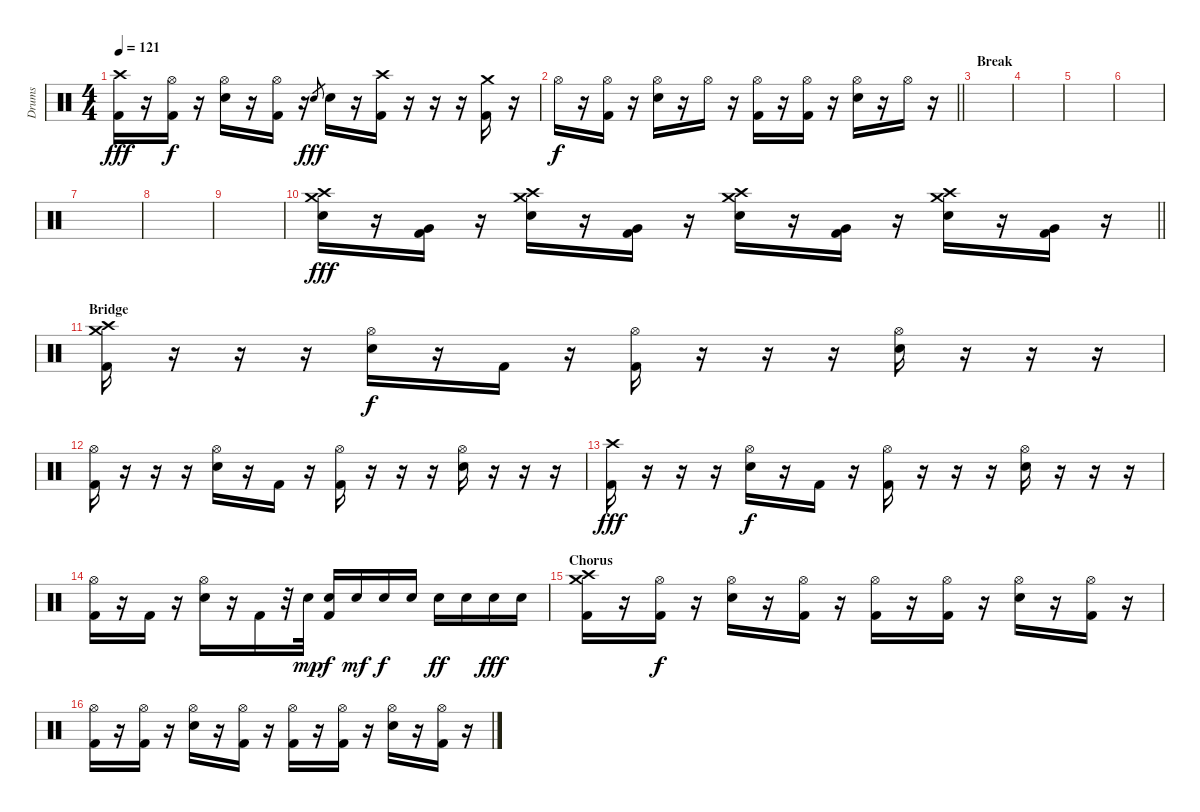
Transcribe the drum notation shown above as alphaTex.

\track ("Drums" "Drums") {instrument percussion}
\staff {score}
\articulation defaults
\ts (4 4)
\tempo 121
\clef neutral
\ks c
("Crash high (hit)" "Kick (hit) 2").16{dy fff} r.16 ("Hi-Hat (open)" "Kick (hit) 2").16{dy f} r.16 ("Hi-Hat (open)" "Electric Snare (hit)").16 r.16 ("Hi-Hat (open)" "Kick (hit) 2").16 r.16 "Electric Snare (hit)".8{gr dy fff} "Electric Snare (hit)".16 r.16 ("Crash high (hit)" "Kick (hit) 2").16 r.16 r.16 r.16 ("Crash medium (hit)" "Kick (hit) 2").16 r.16 |
\barLineRight lightlight "Hi-Hat (open)".16{dy f}
r.16 ("Hi-Hat (open)" "Kick (hit) 2").16 r.16 ("Hi-Hat (open)" "Electric Snare (hit)").16 r.16 "Hi-Hat (open)".16 r.16 ("Hi-Hat (open)" "Kick (hit) 2").16 r.16 ("Hi-Hat (open)" "Kick (hit) 2").16 r.16 ("Hi-Hat (open)" "Electric Snare (hit)").16 r.16 "Hi-Hat (open)".16 r.16 |
\section ("" "Break")
|
|
|
|
|
|
|
\barLineRight lightlight
("Crash medium (hit)" "Crash high (hit)" "Electric Snare (hit)").16{dy fff volume 16} r.16 ("Very Low Tom (hit)" "Kick (hit) 2").16 r.16 ("Crash medium (hit)" "Crash high (hit)" "Electric Snare (hit)").16 r.16 ("Very Low Tom (hit)" "Kick (hit) 2").16 r.16 ("Crash medium (hit)" "Crash high (hit)" "Electric Snare (hit)").16 r.16 ("Very Low Tom (hit)" "Kick (hit) 2").16 r.16 ("Crash medium (hit)" "Crash high (hit)" "Electric Snare (hit)").16 r.16 ("Very Low Tom (hit)" "Kick (hit) 2").16 r.16 |
\section ("" "Bridge")
("Crash high (hit)" "Crash medium (hit)" "Kick (hit) 2").16{volume 14} r.16 r.16 r.16 ("Hi-Hat (open)" "Electric Snare (hit)").16{dy f} r.16 "Kick (hit) 2".16 r.16 ("Hi-Hat (open)" "Kick (hit) 2").16 r.16 r.16 r.16 ("Hi-Hat (open)" "Electric Snare (hit)").16 r.16 r.16 r.16 |
("Hi-Hat (open)" "Kick (hit) 2").16 r.16 r.16 r.16 ("Hi-Hat (open)" "Electric Snare (hit)").16 r.16 "Kick (hit) 2".16 r.16 ("Hi-Hat (open)" "Kick (hit) 2").16 r.16 r.16 r.16 ("Hi-Hat (open)" "Electric Snare (hit)").16 r.16 r.16 r.16 |
("Crash high (hit)" "Kick (hit) 2").16{dy fff} r.16 r.16 r.16 ("Hi-Hat (open)" "Electric Snare (hit)").16{dy f} r.16 "Kick (hit) 2".16 r.16 ("Hi-Hat (open)" "Kick (hit) 2").16 r.16 r.16 r.16 ("Hi-Hat (open)" "Electric Snare (hit)").16 r.16 r.16 r.16 |
("Hi-Hat (open)" "Kick (hit) 2").16 r.16 "Kick (hit) 2".16 r.16 ("Hi-Hat (open)" "Electric Snare (hit)").16 r.16 "Kick (hit) 2".16 r.32 "Electric Snare (hit)".32{dy mp} ("Electric Snare (hit)" "Kick (hit) 2").16{dy f} "Electric Snare (hit)".16{dy mf} "Electric Snare (hit)".16{dy f} "Electric Snare (hit)".16 "Electric Snare (hit)".16{dy ff} "Electric Snare (hit)".16 "Electric Snare (hit)".16{dy fff} "Electric Snare (hit)".16 |
\section ("" "Chorus")
("Crash high (hit)" "Crash medium (hit)" "Kick (hit) 2").16 r.16 ("Hi-Hat (open)" "Kick (hit) 2").16{dy f} r.16 ("Hi-Hat (open)" "Electric Snare (hit)").16 r.16 ("Hi-Hat (open)" "Kick (hit) 2").16 r.16 ("Hi-Hat (open)" "Kick (hit) 2").16 r.16 ("Hi-Hat (open)" "Kick (hit) 2").16 r.16 ("Hi-Hat (open)" "Electric Snare (hit)").16 r.16 ("Hi-Hat (open)" "Kick (hit) 2").16 r.16 |
("Hi-Hat (open)" "Kick (hit) 2").16 r.16 ("Hi-Hat (open)" "Kick (hit) 2").16 r.16 ("Hi-Hat (open)" "Electric Snare (hit)").16 r.16 ("Hi-Hat (open)" "Kick (hit) 2").16 r.16 ("Hi-Hat (open)" "Kick (hit) 2").16 r.16 ("Hi-Hat (open)" "Kick (hit) 2").16 r.16 ("Hi-Hat (open)" "Electric Snare (hit)").16 r.16 ("Hi-Hat (open)" "Kick (hit) 2").16 r.16
